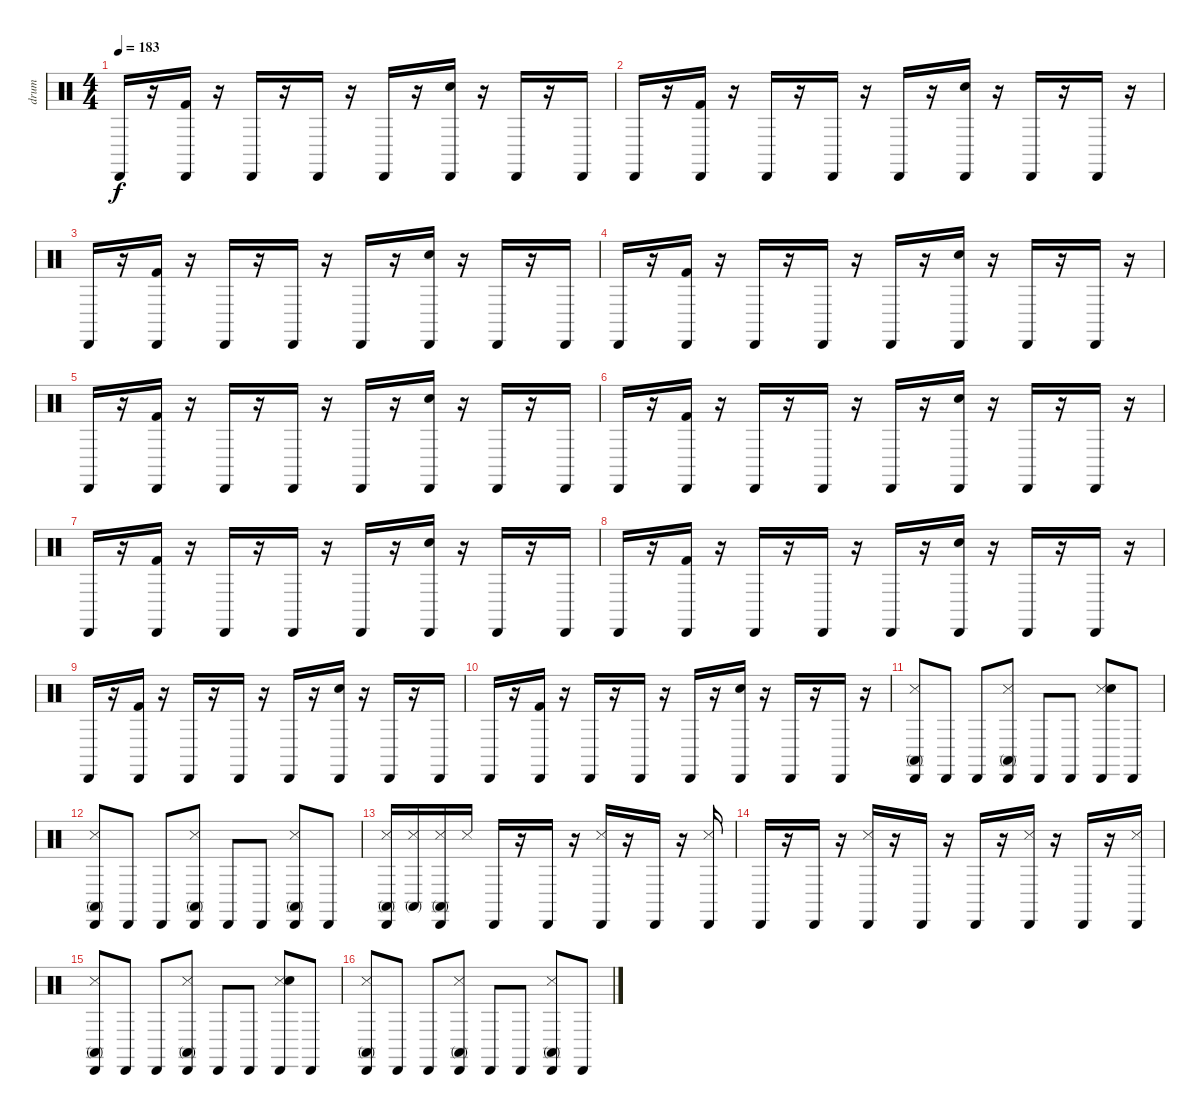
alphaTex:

\track ("drum" "drum") {instrument percussion}
\staff {score}
\articulation defaults
\ts (4 4)
\tempo 183
\clef neutral
\ks c "Cabasa (hit)".16{dy f}
r.16 ("Cabasa (hit)" "Kick (hit) 2").16 r.16 "Cabasa (hit)".16 r.16 "Cabasa (hit)".16 r.16 "Cabasa (hit)".16 r.16 ("Cabasa (hit)" "Snare (hit) 2").16 r.16 "Cabasa (hit)".16 r.16 "Cabasa (hit)".16 |
"Cabasa (hit)".16 r.16 ("Cabasa (hit)" "Kick (hit) 2").16 r.16 "Cabasa (hit)".16 r.16 "Cabasa (hit)".16 r.16 "Cabasa (hit)".16 r.16 ("Cabasa (hit)" "Snare (hit) 2").16 r.16 "Cabasa (hit)".16 r.16 "Cabasa (hit)".16 r.16 |
"Cabasa (hit)".16 r.16 ("Cabasa (hit)" "Kick (hit) 2").16 r.16 "Cabasa (hit)".16 r.16 "Cabasa (hit)".16 r.16 "Cabasa (hit)".16 r.16 ("Cabasa (hit)" "Snare (hit) 2").16 r.16 "Cabasa (hit)".16 r.16 "Cabasa (hit)".16 |
"Cabasa (hit)".16 r.16 ("Cabasa (hit)" "Kick (hit) 2").16 r.16 "Cabasa (hit)".16 r.16 "Cabasa (hit)".16 r.16 "Cabasa (hit)".16 r.16 ("Cabasa (hit)" "Snare (hit) 2").16 r.16 "Cabasa (hit)".16 r.16 "Cabasa (hit)".16 r.16 |
"Cabasa (hit)".16 r.16 ("Cabasa (hit)" "Kick (hit) 2").16 r.16 "Cabasa (hit)".16 r.16 "Cabasa (hit)".16 r.16 "Cabasa (hit)".16 r.16 ("Cabasa (hit)" "Snare (hit) 2").16 r.16 "Cabasa (hit)".16 r.16 "Cabasa (hit)".16 |
"Cabasa (hit)".16 r.16 ("Cabasa (hit)" "Kick (hit) 2").16 r.16 "Cabasa (hit)".16 r.16 "Cabasa (hit)".16 r.16 "Cabasa (hit)".16 r.16 ("Cabasa (hit)" "Snare (hit) 2").16 r.16 "Cabasa (hit)".16 r.16 "Cabasa (hit)".16 r.16 |
"Cabasa (hit)".16 r.16 ("Cabasa (hit)" "Kick (hit) 2").16 r.16 "Cabasa (hit)".16 r.16 "Cabasa (hit)".16 r.16 "Cabasa (hit)".16 r.16 ("Cabasa (hit)" "Snare (hit) 2").16 r.16 "Cabasa (hit)".16 r.16 "Cabasa (hit)".16 |
"Cabasa (hit)".16 r.16 ("Cabasa (hit)" "Kick (hit) 2").16 r.16 "Cabasa (hit)".16 r.16 "Cabasa (hit)".16 r.16 "Cabasa (hit)".16 r.16 ("Cabasa (hit)" "Snare (hit) 2").16 r.16 "Cabasa (hit)".16 r.16 "Cabasa (hit)".16 r.16 |
"Cabasa (hit)".16 r.16 ("Cabasa (hit)" "Kick (hit) 2").16 r.16 "Cabasa (hit)".16 r.16 "Cabasa (hit)".16 r.16 "Cabasa (hit)".16 r.16 ("Cabasa (hit)" "Snare (hit) 2").16 r.16 "Cabasa (hit)".16 r.16 "Cabasa (hit)".16 |
"Cabasa (hit)".16 r.16 ("Cabasa (hit)" "Kick (hit) 2").16 r.16 "Cabasa (hit)".16 r.16 "Cabasa (hit)".16 r.16 "Cabasa (hit)".16 r.16 ("Cabasa (hit)" "Snare (hit) 2").16 r.16 "Cabasa (hit)".16 r.16 "Cabasa (hit)".16 r.16 |
("Cabasa (hit)" "Conga high (mute)" "Snare (side stick) 3").8 "Cabasa (hit)".8 "Cabasa (hit)".8 ("Cabasa (hit)" "Snare (side stick) 3" "Conga high (mute)").8 "Cabasa (hit)".8 "Cabasa (hit)".8 ("Cabasa (hit)" "Snare (side stick) 3" "Snare (hit)").8 "Cabasa (hit)".8 |
("Cabasa (hit)" "Snare (side stick) 3" "Conga high (mute)").8 "Cabasa (hit)".8 "Cabasa (hit)".8 ("Cabasa (hit)" "Conga high (mute)" "Snare (side stick) 3").8 "Cabasa (hit)".8 "Cabasa (hit)".8 ("Cabasa (hit)" "Conga high (mute)" "Snare (side stick) 3").8 "Cabasa (hit)".8 |
("Cabasa (hit)" "Conga high (mute)" "Snare (side stick) 3").16 ("Conga high (mute)" "Snare (side stick) 3").16 ("Cabasa (hit)" "Conga high (mute)" "Snare (side stick) 3").16 "Snare (side stick) 3".16 "Cabasa (hit)".16 r.16 "Cabasa (hit)".16 r.16 ("Cabasa (hit)" "Snare (side stick) 3").16 r.16 "Cabasa (hit)".16 r.16 ("Cabasa (hit)" "Snare (side stick) 3").16 |
"Cabasa (hit)".16 r.16 "Cabasa (hit)".16 r.16 ("Cabasa (hit)" "Snare (side stick) 3").16 r.16 "Cabasa (hit)".16 r.16 "Cabasa (hit)".16 r.16 ("Cabasa (hit)" "Snare (side stick) 3").16 r.16 "Cabasa (hit)".16 r.16 ("Cabasa (hit)" "Snare (side stick) 3").16 |
("Cabasa (hit)" "Conga high (mute)" "Snare (side stick) 3").8 "Cabasa (hit)".8 "Cabasa (hit)".8 ("Cabasa (hit)" "Snare (side stick) 3" "Conga high (mute)").8 "Cabasa (hit)".8 "Cabasa (hit)".8 ("Cabasa (hit)" "Snare (side stick) 3" "Snare (hit)").8 "Cabasa (hit)".8 |
("Cabasa (hit)" "Snare (side stick) 3" "Conga high (mute)").8 "Cabasa (hit)".8 "Cabasa (hit)".8 ("Cabasa (hit)" "Conga high (mute)" "Snare (side stick) 3").8 "Cabasa (hit)".8 "Cabasa (hit)".8 ("Cabasa (hit)" "Conga high (mute)" "Snare (side stick) 3").8 "Cabasa (hit)".8
